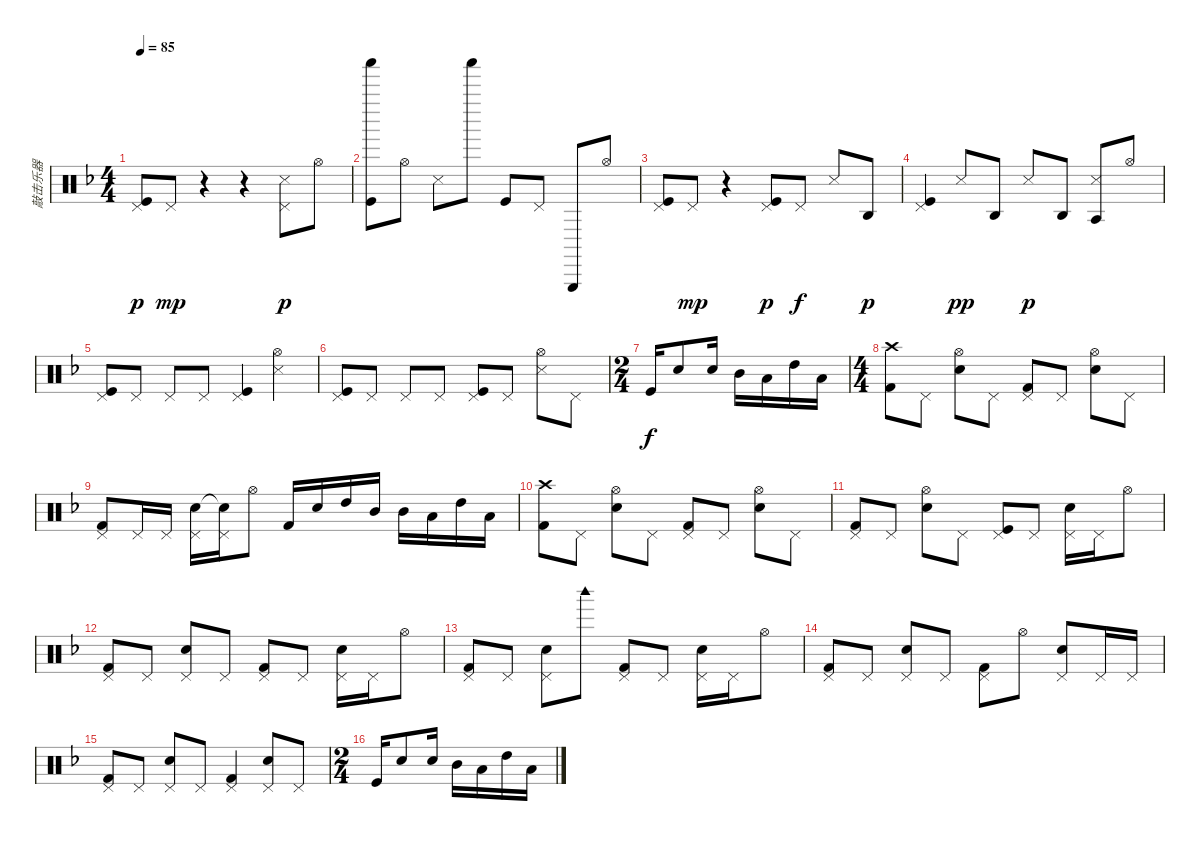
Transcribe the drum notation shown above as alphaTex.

\track ("敲击乐器" "敲击乐器") {instrument percussion}
\staff {score}
\articulation defaults
\ts (4 4)
\tempo 85
\clef neutral
\ks f
("Pedal Hi-Hat (hit)" "Kick (hit)").8{dy p} "Pedal Hi-Hat (hit)".8{dy mp} r.4 r.4 ("Pedal Hi-Hat (hit)" "Snare (side stick) 3").8{dy p} "Hi-Hat (open)".8 |
("Shaker (hit)" "Kick (hit)").8 "Hi-Hat (open)".8 "Snare (side stick) 3".8 "Shaker (hit)".8 "Kick (hit)".8 "Pedal Hi-Hat (hit)".8 "Triangle (hit)".8 "Hi-Hat (open)".8 |
("Pedal Hi-Hat (hit)" "Kick (hit)").8 "Pedal Hi-Hat (hit)".8{dy mp} r.4 ("Pedal Hi-Hat (hit)" "Kick (hit)").8{dy p} "Pedal Hi-Hat (hit)".8{dy f} "Snare (side stick) 3".8 "Agogo high (hit)".8{dy p} |
("Pedal Hi-Hat (hit)" "Kick (hit)").4 "Snare (side stick) 3".8{dy pp} "Agogo high (hit)".8 "Snare (side stick) 3".8{dy p} "Agogo high (hit)".8 ("Agogo tow (hit)" "Snare (side stick) 3").8 "Hi-Hat (open)".8 |
("Pedal Hi-Hat (hit)" "Kick (hit)").8 "Pedal Hi-Hat (hit)".8 "Pedal Hi-Hat (hit)".8 "Pedal Hi-Hat (hit)".8 ("Pedal Hi-Hat (hit)" "Kick (hit)").4 ("Hi-Hat (open)" "Snare (side stick) 3").4 |
("Pedal Hi-Hat (hit)" "Kick (hit)").8 "Pedal Hi-Hat (hit)".8 "Pedal Hi-Hat (hit)".8 "Pedal Hi-Hat (hit)".8 ("Pedal Hi-Hat (hit)" "Kick (hit)").8 "Pedal Hi-Hat (hit)".8 ("Hi-Hat (open)" "Snare (side stick) 3").8 "Pedal Hi-Hat (hit)".8 |
\ts (2 4)
"Kick (hit)".16{dy f} "Snare (hit) 2".8 "Snare (hit) 2".16 "Mid Tom (hit)".16 "Low Tom (hit)".16 "High Tom (hit)".16 "Low Tom (hit)".16 |
\ts (4 4)
("Crash high (hit)" "Kick (hit) 2").8 "Pedal Hi-Hat (hit)".8 ("Hi-Hat (open)" "Snare (hit) 2").8 "Pedal Hi-Hat (hit)".8 ("Pedal Hi-Hat (hit)" "Kick (hit) 2").8 "Pedal Hi-Hat (hit)".8 ("Hi-Hat (open)" "Snare (hit) 2").8 "Pedal Hi-Hat (hit)".8 |
("Pedal Hi-Hat (hit)" "Kick (hit) 2").8 "Pedal Hi-Hat (hit)".16 "Pedal Hi-Hat (hit)".16 ("Pedal Hi-Hat (hit)" "Snare (hit) 2").16 ("Pedal Hi-Hat (hit)" "Snare (hit) 2"{t}).16 "Hi-Hat (open)".8 "Kick (hit) 2".16 "Snare (hit) 2".16 "High Tom (hit)".16 "Mid Tom (hit)".16 "Mid Tom (hit)".16 "Low Tom (hit)".16 "High Tom (hit)".16 "Low Tom (hit)".16 |
("Crash high (hit)" "Kick (hit) 2").8 "Pedal Hi-Hat (hit)".8 ("Hi-Hat (open)" "Snare (hit) 2").8 "Pedal Hi-Hat (hit)".8 ("Pedal Hi-Hat (hit)" "Kick (hit) 2").8 "Pedal Hi-Hat (hit)".8 ("Hi-Hat (open)" "Snare (hit) 2").8 "Pedal Hi-Hat (hit)".8 |
("Pedal Hi-Hat (hit)" "Kick (hit) 2").8 "Pedal Hi-Hat (hit)".8 ("Hi-Hat (open)" "Snare (hit) 2").8 "Pedal Hi-Hat (hit)".8 ("Pedal Hi-Hat (hit)" "Kick (hit)").8 "Pedal Hi-Hat (hit)".8 ("Pedal Hi-Hat (hit)" "Snare (hit) 2").16 "Pedal Hi-Hat (hit)".16 "Hi-Hat (open)".8 |
("Pedal Hi-Hat (hit)" "Kick (hit) 2").8 "Pedal Hi-Hat (hit)".8 ("Pedal Hi-Hat (hit)" "Snare (hit) 2").8 "Pedal Hi-Hat (hit)".8 ("Pedal Hi-Hat (hit)" "Kick (hit) 2").8 "Pedal Hi-Hat (hit)".8 ("Pedal Hi-Hat (hit)" "Snare (hit) 2").16 "Pedal Hi-Hat (hit)".16 "Hi-Hat (open)".8 |
("Pedal Hi-Hat (hit)" "Kick (hit) 2").8 "Pedal Hi-Hat (hit)".8 ("Pedal Hi-Hat (hit)" "Snare (hit) 2").8 "Woodblock high (hit)".8 ("Pedal Hi-Hat (hit)" "Kick (hit) 2").8 "Pedal Hi-Hat (hit)".8 ("Pedal Hi-Hat (hit)" "Snare (hit) 2").16 "Pedal Hi-Hat (hit)".16 "Hi-Hat (open)".8 |
("Pedal Hi-Hat (hit)" "Kick (hit) 2").8 "Pedal Hi-Hat (hit)".8 ("Pedal Hi-Hat (hit)" "Snare (hit) 2").8 "Pedal Hi-Hat (hit)".8 ("Pedal Hi-Hat (hit)" "Kick (hit) 2").8 "Hi-Hat (open)".8 ("Pedal Hi-Hat (hit)" "Snare (hit) 2").8 "Pedal Hi-Hat (hit)".16 "Pedal Hi-Hat (hit)".16 |
("Pedal Hi-Hat (hit)" "Kick (hit) 2").8 "Pedal Hi-Hat (hit)".8 ("Pedal Hi-Hat (hit)" "Snare (hit) 2").8 "Pedal Hi-Hat (hit)".8 ("Pedal Hi-Hat (hit)" "Kick (hit) 2").4 ("Pedal Hi-Hat (hit)" "Snare (hit) 2").8 "Pedal Hi-Hat (hit)".8 |
\ts (2 4)
"Kick (hit)".16 "Snare (hit) 2".8 "Snare (hit) 2".16 "Mid Tom (hit)".16 "Low Tom (hit)".16 "High Tom (hit)".16 "Low Tom (hit)".16
